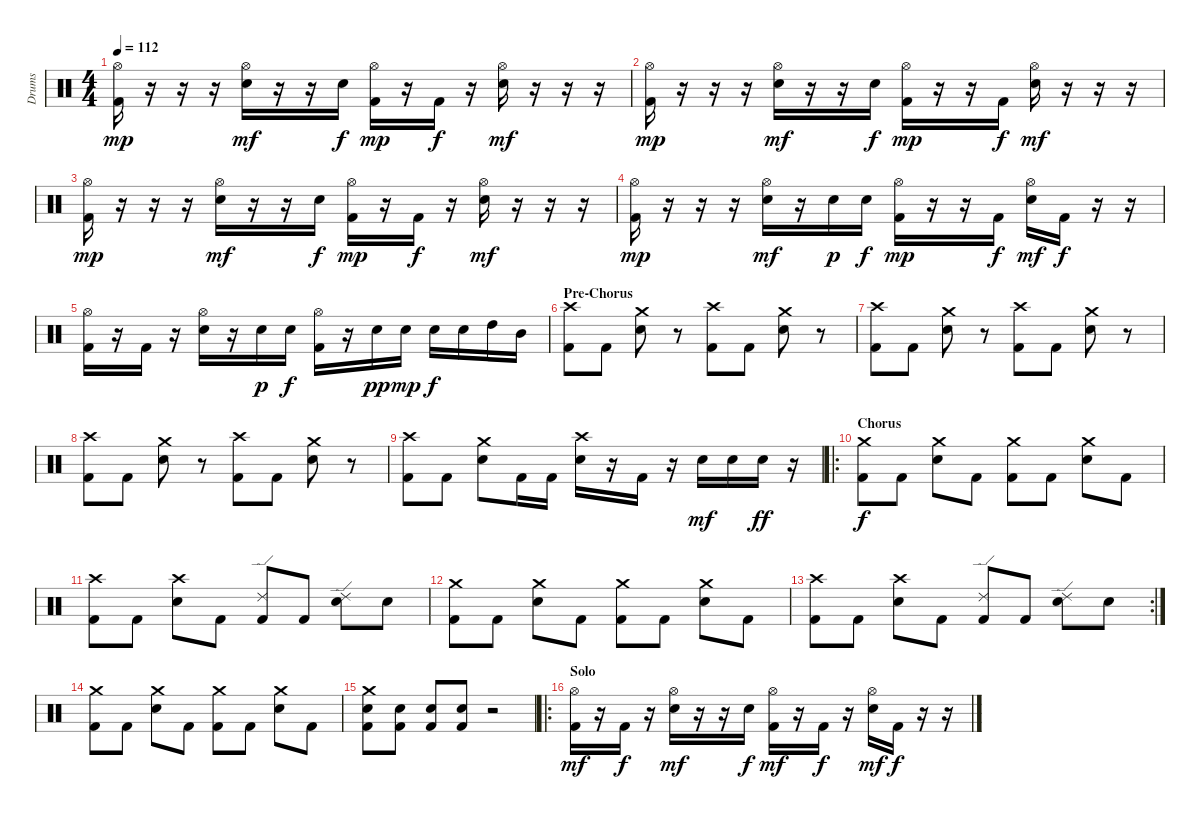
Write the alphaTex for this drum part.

\track ("Drums" "Drums") {instrument percussion}
\staff {score}
\articulation defaults
\ts (4 4)
\tempo 112
\clef neutral
\ks c
("Hi-Hat (open)" "Kick (hit) 2").16{dy mp} r.16 r.16 r.16 ("Hi-Hat (open)" "Snare (hit) 2").16{dy mf} r.16 r.16 "Snare (hit) 2".16{dy f} ("Hi-Hat (open)" "Kick (hit) 2").16{dy mp} r.16 "Kick (hit) 2".16{dy f} r.16 ("Hi-Hat (open)" "Snare (hit) 2").16{dy mf} r.16 r.16 r.16 |
("Hi-Hat (open)" "Kick (hit) 2").16{dy mp} r.16 r.16 r.16 ("Hi-Hat (open)" "Snare (hit) 2").16{dy mf} r.16 r.16 "Snare (hit) 2".16{dy f} ("Hi-Hat (open)" "Kick (hit) 2").16{dy mp} r.16 r.16 "Kick (hit) 2".16{dy f} ("Hi-Hat (open)" "Snare (hit) 2").16{dy mf} r.16 r.16 r.16 |
("Hi-Hat (open)" "Kick (hit) 2").16{dy mp} r.16 r.16 r.16 ("Hi-Hat (open)" "Snare (hit) 2").16{dy mf} r.16 r.16 "Snare (hit) 2".16{dy f} ("Hi-Hat (open)" "Kick (hit) 2").16{dy mp} r.16 "Kick (hit) 2".16{dy f} r.16 ("Hi-Hat (open)" "Snare (hit) 2").16{dy mf} r.16 r.16 r.16 |
("Hi-Hat (open)" "Kick (hit) 2").16{dy mp} r.16 r.16 r.16 ("Hi-Hat (open)" "Snare (hit) 2").16{dy mf} r.16 "Snare (hit) 2".16{dy p} "Snare (hit) 2".16{dy f} ("Hi-Hat (open)" "Kick (hit) 2").16{dy mp} r.16 r.16 "Kick (hit) 2".16{dy f} ("Hi-Hat (open)" "Snare (hit) 2").16{dy mf} "Kick (hit) 2".16{dy f} r.16 r.16 |
("Hi-Hat (open)" "Kick (hit) 2").16 r.16 "Kick (hit) 2".16 r.16 ("Hi-Hat (open)" "Snare (hit) 2").16 r.16 "Snare (hit) 2".16{dy p} "Snare (hit) 2".16{dy f} ("Hi-Hat (open)" "Kick (hit) 2").16 r.16 "Snare (hit) 2".16{dy pp} "Snare (hit) 2".16{dy mp} "Snare (hit) 2".16{dy f} "Snare (hit) 2".16 "High Tom (hit)".16 "Mid Tom (hit)".16 |
\section ("" "Pre-Chorus")
("Crash high (hit)" "Kick (hit) 2").8 "Kick (hit) 2".8 ("Crash medium (hit)" "Snare (hit) 2").8 r.8 ("Crash high (hit)" "Kick (hit) 2").8 "Kick (hit) 2".8 ("Crash medium (hit)" "Snare (hit) 2").8 r.8 |
("Crash high (hit)" "Kick (hit) 2").8 "Kick (hit) 2".8 ("Crash medium (hit)" "Snare (hit) 2").8 r.8 ("Crash high (hit)" "Kick (hit) 2").8 "Kick (hit) 2".8 ("Crash medium (hit)" "Snare (hit) 2").8 r.8 |
("Crash high (hit)" "Kick (hit) 2").8 "Kick (hit) 2".8 ("Crash medium (hit)" "Snare (hit) 2").8 r.8 ("Crash high (hit)" "Kick (hit) 2").8 "Kick (hit) 2".8 ("Crash medium (hit)" "Snare (hit) 2").8 r.8 |
("Crash high (hit)" "Kick (hit) 2").8 "Kick (hit) 2".8 ("Crash medium (hit)" "Snare (hit) 2").8 "Kick (hit) 2".16 "Kick (hit) 2".16 ("Crash high (hit)" "Snare (hit) 2").16 r.16 "Kick (hit) 2".16 r.16 "Snare (hit) 2".16{dy mf} "Snare (hit) 2".16 "Snare (hit) 2".16{dy ff} r.16 |
\ro
\section ("" "Chorus")
("Crash medium (hit)" "Kick (hit) 2").8{dy f} "Kick (hit) 2".8 ("Crash medium (hit)" "Snare (hit) 2").8 "Kick (hit) 2".8 ("Crash medium (hit)" "Kick (hit) 2").8 "Kick (hit) 2".8 ("Crash medium (hit)" "Snare (hit) 2").8 "Kick (hit) 2".8 |
("Crash high (hit)" "Kick (hit) 2").8 "Kick (hit) 2".8 ("Crash high (hit)" "Snare (hit) 2").8 "Kick (hit) 2".8 ("Ride (edge) 2" "Kick (hit) 2").8 "Kick (hit) 2".8 ("Ride (edge) 2" "Snare (hit) 2").8 "Snare (hit) 2".8 |
("Crash medium (hit)" "Kick (hit) 2").8 "Kick (hit) 2".8 ("Crash medium (hit)" "Snare (hit) 2").8 "Kick (hit) 2".8 ("Crash medium (hit)" "Kick (hit) 2").8 "Kick (hit) 2".8 ("Crash medium (hit)" "Snare (hit) 2").8 "Kick (hit) 2".8 |
\rc 2
("Crash high (hit)" "Kick (hit) 2").8 "Kick (hit) 2".8 ("Crash high (hit)" "Snare (hit) 2").8 "Kick (hit) 2".8 ("Ride (edge) 2" "Kick (hit) 2").8 "Kick (hit) 2".8 ("Ride (edge) 2" "Snare (hit) 2").8 "Snare (hit) 2".8 |
("Crash medium (hit)" "Kick (hit) 2").8 "Kick (hit) 2".8 ("Crash medium (hit)" "Snare (hit) 2").8 "Kick (hit) 2".8 ("Crash medium (hit)" "Kick (hit) 2").8 "Kick (hit) 2".8 ("Crash medium (hit)" "Snare (hit) 2").8 "Kick (hit) 2".8 |
("Crash medium (hit)" "Snare (hit) 2" "Kick (hit) 2").8 ("Snare (hit) 2" "Kick (hit) 2").8 ("Snare (hit) 2" "Kick (hit) 2").8 ("Snare (hit) 2" "Kick (hit) 2").8 r.2 |
\ro
\section ("" "Solo")
("Hi-Hat (open)" "Kick (hit) 2").16{dy mf} r.16 "Kick (hit) 2".16{dy f} r.16 ("Hi-Hat (open)" "Snare (hit) 2").16{dy mf} r.16 r.16 "Snare (hit) 2".16{dy f} ("Hi-Hat (open)" "Kick (hit) 2").16{dy mf} r.16 "Kick (hit) 2".16{dy f} r.16 ("Hi-Hat (open)" "Snare (hit) 2").16{dy mf} "Kick (hit) 2".16{dy f} r.16 r.16
